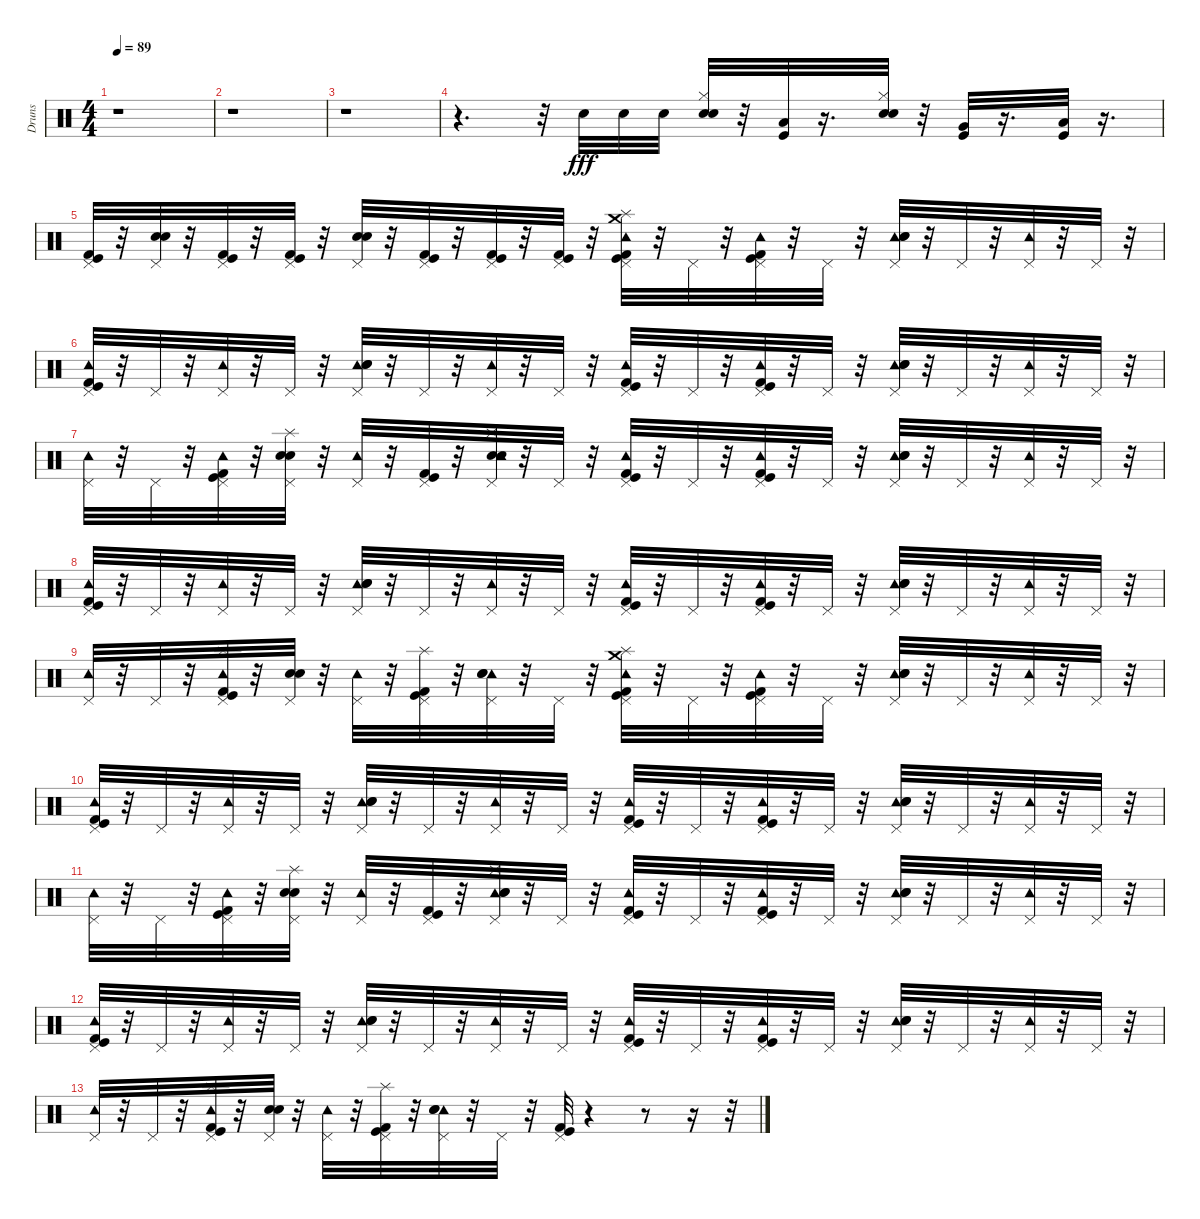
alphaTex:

\track ("Druns" "Druns") {instrument percussion}
\staff {score}
\articulation defaults
\ts (4 4)
\tempo 89
\clef neutral
\ks c
r.1{dy fff} |
r.1 |
r.1 |
r.4{d} r.32 "Snare (hit) 2".32 "Snare (hit) 2".32 "Snare (hit) 2".32 ("Snare (hit) 2" "Hi-Hat (closed)" "Electric Snare (hit)").32 r.32 ("Kick (hit)" "Low Tom (hit)").32 r.16{d} ("Hi-Hat (closed)" "Electric Snare (hit)" "Snare (hit) 2").32 r.32 ("Kick (hit)" "Very Low Tom (hit)").32 r.16{d} ("Kick (hit)" "Low Floor Tom (hit)").32 r.16{d} |
("Pedal Hi-Hat (hit)" "Kick (hit)" "Kick (hit) 2").32 r.32 ("Electric Snare (hit)" "Pedal Hi-Hat (hit)" "Snare (hit) 2").32 r.32 ("Pedal Hi-Hat (hit)" "Kick (hit)" "Kick (hit) 2").32 r.32 ("Kick (hit) 2" "Pedal Hi-Hat (hit)" "Kick (hit)").32 r.32 ("Pedal Hi-Hat (hit)" "Electric Snare (hit)" "Snare (hit) 2").32 r.32 ("Kick (hit)" "Kick (hit) 2" "Pedal Hi-Hat (hit)").32 r.32 ("Kick (hit) 2" "Pedal Hi-Hat (hit)" "Kick (hit)").32 r.32 ("Pedal Hi-Hat (hit)" "Kick (hit)" "Kick (hit) 2").32 r.32 ("Kick (hit)" "Splash (hit)" "Tambourine (hit)" "Kick (hit) 2" "Crash medium (hit)" "Pedal Hi-Hat (hit)").32 r.32 "Pedal Hi-Hat (hit)".32 r.32 ("Kick (hit) 2" "Kick (hit)" "Tambourine (hit)" "Pedal Hi-Hat (hit)").32 r.32 "Pedal Hi-Hat (hit)".32 r.32 ("Tambourine (hit)" "Snare (hit) 2" "Electric Snare (hit)" "Pedal Hi-Hat (hit)").32 r.32 "Pedal Hi-Hat (hit)".32 r.32 ("Tambourine (hit)" "Pedal Hi-Hat (hit)").32 r.32 "Pedal Hi-Hat (hit)".32 r.32 |
("Pedal Hi-Hat (hit)" "Kick (hit)" "Kick (hit) 2" "Tambourine (hit)").32 r.32 "Pedal Hi-Hat (hit)".32 r.32 ("Tambourine (hit)" "Pedal Hi-Hat (hit)").32 r.32 "Pedal Hi-Hat (hit)".32 r.32 ("Tambourine (hit)" "Pedal Hi-Hat (hit)" "Electric Snare (hit)" "Snare (hit) 2").32 r.32 "Pedal Hi-Hat (hit)".32 r.32 ("Tambourine (hit)" "Pedal Hi-Hat (hit)").32 r.32 "Pedal Hi-Hat (hit)".32 r.32 ("Kick (hit)" "Pedal Hi-Hat (hit)" "Tambourine (hit)" "Kick (hit) 2").32 r.32 "Pedal Hi-Hat (hit)".32 r.32 ("Tambourine (hit)" "Kick (hit) 2" "Kick (hit)" "Pedal Hi-Hat (hit)").32 r.32 "Pedal Hi-Hat (hit)".32 r.32 ("Tambourine (hit)" "Snare (hit) 2" "Pedal Hi-Hat (hit)" "Electric Snare (hit)").32 r.32 "Pedal Hi-Hat (hit)".32 r.32 ("Tambourine (hit)" "Pedal Hi-Hat (hit)").32 r.32 "Pedal Hi-Hat (hit)".32 r.32 |
("Tambourine (hit)" "Pedal Hi-Hat (hit)").32 r.32 "Pedal Hi-Hat (hit)".32 r.32 ("Tambourine (hit)" "Pedal Hi-Hat (hit)" "Kick (hit) 2" "Kick (hit)").32 r.32 ("Splash (hit)" "Electric Snare (hit)" "Snare (hit) 2" "Pedal Hi-Hat (hit)").32 r.32 ("Tambourine (hit)" "Pedal Hi-Hat (hit)").32 r.32 ("Kick (hit) 2" "Kick (hit)" "Pedal Hi-Hat (hit)").32 r.32 ("Snare (hit) 2" "Splash (hit)" "Tambourine (hit)" "Pedal Hi-Hat (hit)" "Electric Snare (hit)").32 r.32 "Pedal Hi-Hat (hit)".32 r.32 ("Tambourine (hit)" "Kick (hit) 2" "Kick (hit)" "Pedal Hi-Hat (hit)").32 r.32 "Pedal Hi-Hat (hit)".32 r.32 ("Tambourine (hit)" "Pedal Hi-Hat (hit)" "Kick (hit) 2" "Kick (hit)").32 r.32 "Pedal Hi-Hat (hit)".32 r.32 ("Tambourine (hit)" "Snare (hit) 2" "Electric Snare (hit)" "Pedal Hi-Hat (hit)").32 r.32 "Pedal Hi-Hat (hit)".32 r.32 ("Tambourine (hit)" "Pedal Hi-Hat (hit)").32 r.32 "Pedal Hi-Hat (hit)".32 r.32 |
("Tambourine (hit)" "Kick (hit) 2" "Kick (hit)" "Pedal Hi-Hat (hit)").32 r.32 "Pedal Hi-Hat (hit)".32 r.32 ("Tambourine (hit)" "Pedal Hi-Hat (hit)").32 r.32 "Pedal Hi-Hat (hit)".32 r.32 ("Tambourine (hit)" "Electric Snare (hit)" "Snare (hit) 2" "Pedal Hi-Hat (hit)").32 r.32 "Pedal Hi-Hat (hit)".32 r.32 ("Tambourine (hit)" "Pedal Hi-Hat (hit)").32 r.32 "Pedal Hi-Hat (hit)".32 r.32 ("Tambourine (hit)" "Kick (hit) 2" "Kick (hit)" "Pedal Hi-Hat (hit)").32 r.32 "Pedal Hi-Hat (hit)".32 r.32 ("Tambourine (hit)" "Kick (hit) 2" "Kick (hit)" "Pedal Hi-Hat (hit)").32 r.32 "Pedal Hi-Hat (hit)".32 r.32 ("Tambourine (hit)" "Electric Snare (hit)" "Snare (hit) 2" "Pedal Hi-Hat (hit)").32 r.32 "Pedal Hi-Hat (hit)".32 r.32 ("Tambourine (hit)" "Pedal Hi-Hat (hit)").32 r.32 "Pedal Hi-Hat (hit)".32 r.32 |
("Tambourine (hit)" "Pedal Hi-Hat (hit)").32 r.32 "Pedal Hi-Hat (hit)".32 r.32 ("Tambourine (hit)" "Kick (hit) 2" "Kick (hit)" "Pedal Hi-Hat (hit)" "Splash (hit)").32 r.32 ("Electric Snare (hit)" "Snare (hit) 2" "Pedal Hi-Hat (hit)").32 r.32 ("Tambourine (hit)" "Pedal Hi-Hat (hit)").32 r.32 ("Kick (hit) 2" "Kick (hit)" "Pedal Hi-Hat (hit)" "Splash (hit)").32 r.32 ("Tambourine (hit)" "Snare (hit) 2" "Electric Snare (hit)" "Pedal Hi-Hat (hit)").32 r.32 "Pedal Hi-Hat (hit)".32 r.32 ("Tambourine (hit)" "Kick (hit) 2" "Kick (hit)" "Splash (hit)" "Crash medium (hit)" "Pedal Hi-Hat (hit)").32 r.32 "Pedal Hi-Hat (hit)".32 r.32 ("Tambourine (hit)" "Pedal Hi-Hat (hit)" "Kick (hit) 2" "Kick (hit)").32 r.32 "Pedal Hi-Hat (hit)".32 r.32 ("Tambourine (hit)" "Snare (hit) 2" "Electric Snare (hit)" "Pedal Hi-Hat (hit)").32 r.32 "Pedal Hi-Hat (hit)".32 r.32 ("Tambourine (hit)" "Pedal Hi-Hat (hit)").32 r.32 "Pedal Hi-Hat (hit)".32 r.32 |
("Tambourine (hit)" "Kick (hit) 2" "Kick (hit)" "Pedal Hi-Hat (hit)").32 r.32 "Pedal Hi-Hat (hit)".32 r.32 ("Tambourine (hit)" "Pedal Hi-Hat (hit)").32 r.32 "Pedal Hi-Hat (hit)".32 r.32 ("Tambourine (hit)" "Electric Snare (hit)" "Snare (hit) 2" "Pedal Hi-Hat (hit)").32 r.32 "Pedal Hi-Hat (hit)".32 r.32 ("Tambourine (hit)" "Pedal Hi-Hat (hit)").32 r.32 "Pedal Hi-Hat (hit)".32 r.32 ("Tambourine (hit)" "Kick (hit) 2" "Kick (hit)" "Pedal Hi-Hat (hit)").32 r.32 "Pedal Hi-Hat (hit)".32 r.32 ("Tambourine (hit)" "Kick (hit) 2" "Kick (hit)" "Pedal Hi-Hat (hit)").32 r.32 "Pedal Hi-Hat (hit)".32 r.32 ("Tambourine (hit)" "Electric Snare (hit)" "Snare (hit) 2" "Pedal Hi-Hat (hit)").32 r.32 "Pedal Hi-Hat (hit)".32 r.32 ("Tambourine (hit)" "Pedal Hi-Hat (hit)").32 r.32 "Pedal Hi-Hat (hit)".32 r.32 |
("Tambourine (hit)" "Pedal Hi-Hat (hit)").32 r.32 "Pedal Hi-Hat (hit)".32 r.32 ("Tambourine (hit)" "Kick (hit) 2" "Kick (hit)" "Pedal Hi-Hat (hit)").32 r.32 ("Splash (hit)" "Electric Snare (hit)" "Snare (hit) 2" "Pedal Hi-Hat (hit)").32 r.32 ("Tambourine (hit)" "Pedal Hi-Hat (hit)").32 r.32 ("Kick (hit) 2" "Kick (hit)" "Pedal Hi-Hat (hit)").32 r.32 ("Tambourine (hit)" "Splash (hit)" "Snare (hit) 2" "Electric Snare (hit)" "Pedal Hi-Hat (hit)").32 r.32 "Pedal Hi-Hat (hit)".32 r.32 ("Tambourine (hit)" "Kick (hit) 2" "Kick (hit)" "Pedal Hi-Hat (hit)").32 r.32 "Pedal Hi-Hat (hit)".32 r.32 ("Tambourine (hit)" "Pedal Hi-Hat (hit)" "Kick (hit) 2" "Kick (hit)").32 r.32 "Pedal Hi-Hat (hit)".32 r.32 ("Tambourine (hit)" "Snare (hit) 2" "Electric Snare (hit)" "Pedal Hi-Hat (hit)").32 r.32 "Pedal Hi-Hat (hit)".32 r.32 ("Tambourine (hit)" "Pedal Hi-Hat (hit)").32 r.32 "Pedal Hi-Hat (hit)".32 r.32 |
("Tambourine (hit)" "Kick (hit) 2" "Kick (hit)" "Pedal Hi-Hat (hit)").32 r.32 "Pedal Hi-Hat (hit)".32 r.32 ("Tambourine (hit)" "Pedal Hi-Hat (hit)").32 r.32 "Pedal Hi-Hat (hit)".32 r.32 ("Tambourine (hit)" "Electric Snare (hit)" "Snare (hit) 2" "Pedal Hi-Hat (hit)").32 r.32 "Pedal Hi-Hat (hit)".32 r.32 ("Tambourine (hit)" "Pedal Hi-Hat (hit)").32 r.32 "Pedal Hi-Hat (hit)".32 r.32 ("Tambourine (hit)" "Kick (hit) 2" "Kick (hit)" "Pedal Hi-Hat (hit)").32 r.32 "Pedal Hi-Hat (hit)".32 r.32 ("Tambourine (hit)" "Kick (hit) 2" "Kick (hit)" "Pedal Hi-Hat (hit)").32 r.32 "Pedal Hi-Hat (hit)".32 r.32 ("Tambourine (hit)" "Electric Snare (hit)" "Snare (hit) 2" "Pedal Hi-Hat (hit)").32 r.32 "Pedal Hi-Hat (hit)".32 r.32 ("Tambourine (hit)" "Pedal Hi-Hat (hit)").32 r.32 "Pedal Hi-Hat (hit)".32 r.32 |
("Tambourine (hit)" "Pedal Hi-Hat (hit)").32 r.32 "Pedal Hi-Hat (hit)".32 r.32 ("Tambourine (hit)" "Kick (hit) 2" "Kick (hit)" "Pedal Hi-Hat (hit)" "Splash (hit)").32 r.32 ("Electric Snare (hit)" "Snare (hit) 2" "Pedal Hi-Hat (hit)").32 r.32 ("Tambourine (hit)" "Pedal Hi-Hat (hit)").32 r.32 ("Kick (hit) 2" "Kick (hit)" "Pedal Hi-Hat (hit)" "Splash (hit)").32 r.32 ("Tambourine (hit)" "Snare (hit) 2" "Electric Snare (hit)" "Pedal Hi-Hat (hit)").32 r.32 "Pedal Hi-Hat (hit)".32 r.32 ("Kick (hit) 2" "Kick (hit)" "Pedal Hi-Hat (hit)").32 r.4 r.8 r.16 r.32
